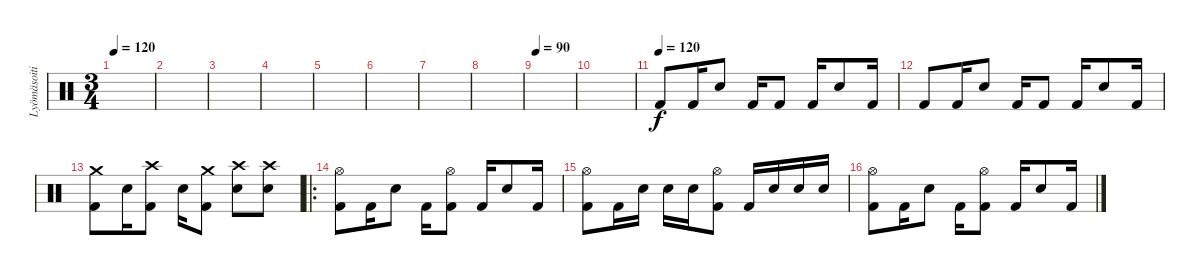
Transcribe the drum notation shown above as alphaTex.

\track ("Lyömäsoitin" "Lyömäsoiti") {instrument percussion}
\staff {score}
\articulation defaults
\ts (3 4)
\tempo 120
\tempo 90
\tempo 120
\clef neutral
\ks c
|
|
|
|
|
|
|
|
\tempo 90
|
|
\tempo (120)
"Kick (hit) 2".8 "Kick (hit) 2".16 "Electric Snare (hit)".8 "Kick (hit) 2".16 "Kick (hit) 2".8 "Kick (hit) 2".16 "Electric Snare (hit)".8 "Kick (hit) 2".16 |
"Kick (hit) 2".8 "Kick (hit) 2".16 "Electric Snare (hit)".8 "Kick (hit) 2".16 "Kick (hit) 2".8 "Kick (hit) 2".16 "Electric Snare (hit)".8 "Kick (hit) 2".16 |
("Kick (hit) 2" "Crash medium (hit)").8 "Electric Snare (hit)".16 ("Kick (hit) 2" "Crash high (hit)").8 "Electric Snare (hit)".16 ("Kick (hit) 2" "Crash medium (hit)").8 ("Electric Snare (hit)" "Crash high (hit)").8 ("Electric Snare (hit)" "Crash high (hit)").8 |
\ro
("Kick (hit) 2" "Hi-Hat (open)").8 "Kick (hit) 2".16 "Electric Snare (hit)".8 "Kick (hit) 2".16 ("Kick (hit) 2" "Hi-Hat (open)").8 "Kick (hit) 2".16 "Electric Snare (hit)".8 "Kick (hit) 2".16 |
("Kick (hit) 2" "Hi-Hat (open)").8 "Kick (hit) 2".16 "Electric Snare (hit)".16 "Electric Snare (hit)".16 "Electric Snare (hit)".16 ("Kick (hit) 2" "Hi-Hat (open)").8 "Kick (hit) 2".16 "Electric Snare (hit)".16 "Electric Snare (hit)".16 "Electric Snare (hit)".16 |
("Kick (hit) 2" "Hi-Hat (open)").8 "Kick (hit) 2".16 "Electric Snare (hit)".8 "Kick (hit) 2".16 ("Kick (hit) 2" "Hi-Hat (open)").8 "Kick (hit) 2".16 "Electric Snare (hit)".8 "Kick (hit) 2".16
